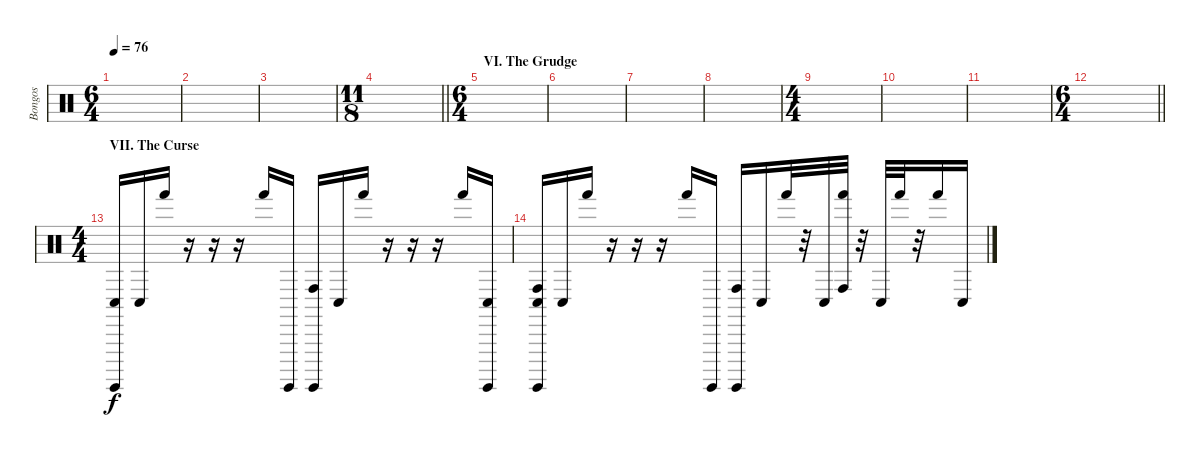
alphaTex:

\track ("Bongos" "Bongos") {mute instrument percussion}
\staff {score}
\articulation defaults
\ts (6 4)
\tempo 76
\clef neutral
\ks c
|
|
|
\ts (11 8)
\barLineRight lightlight
|
\ts (6 4)
\section ("" "VI. The Grudge")
|
|
|
|
\ts (4 4)
|
|
|
\ts (6 4)
\barLineRight lightlight
|
\ts (4 4)
\section ("" "VII. The Curse")
("Conga low (hit)" "Surdo (hit)").16 "Conga low (hit)".16 "Hand (hit)".16 r.16 r.16 r.16 "Hand (hit)".16 "Surdo (hit)".16 ("Conga high (hit)" "Surdo (hit)").16 "Conga low (hit)".16 "Hand (hit)".16 r.16 r.16 r.16 "Hand (hit)".16 ("Conga low (hit)" "Surdo (hit)").16 |
("Conga low (hit)" "Conga high (hit)" "Surdo (hit)").16 "Conga low (hit)".16 "Hand (hit)".16 r.16 r.16 r.16 "Hand (hit)".16 "Surdo (hit)".16 ("Conga high (hit)" "Surdo (hit)").16 "Conga low (hit)".16 "Hand (hit)".32 r.32 "Conga low (hit)".32 ("Hand (hit)" "Conga high (hit)").32 r.32 "Conga low (hit)".32 "Hand (hit)".32 r.32 "Hand (hit)".16 "Conga low (hit)".16
